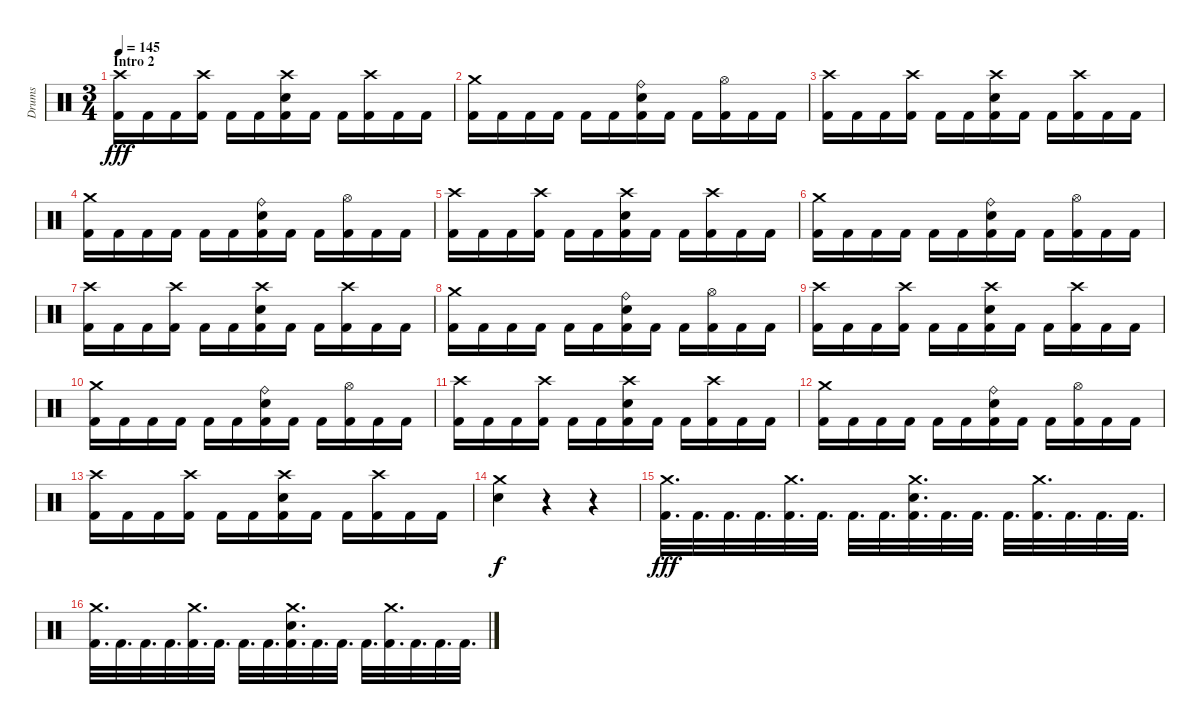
\track ("Drums" "Drums") {instrument percussion}
\staff {score}
\articulation defaults
\ts (3 4)
\section ("" "Intro 2")
\tempo 145
\clef neutral
\ks c
("Crash high (hit)" "Kick (hit) 2").16{dy fff} "Kick (hit) 2".16 "Kick (hit) 2".16 ("Crash high (hit)" "Kick (hit) 2").16 "Kick (hit) 2".16 "Kick (hit) 2".16 ("Crash high (hit)" "Electric Snare (hit)" "Kick (hit) 2").16 "Kick (hit) 2".16 "Kick (hit) 2".16 ("Crash high (hit)" "Kick (hit) 2").16 "Kick (hit) 2".16 "Kick (hit) 2".16 |
("Crash medium (hit)" "Kick (hit) 2").16 "Kick (hit) 2".16 "Kick (hit) 2".16 "Kick (hit) 2".16 "Kick (hit) 2".16 "Kick (hit) 2".16 ("Ride (bell)" "Electric Snare (hit)" "Kick (hit) 2").16 "Kick (hit) 2".16 "Kick (hit) 2".16 ("Hi-Hat (open)" "Kick (hit) 2").16 "Kick (hit) 2".16 "Kick (hit) 2".16 |
("Crash high (hit)" "Kick (hit) 2").16 "Kick (hit) 2".16 "Kick (hit) 2".16 ("Crash high (hit)" "Kick (hit) 2").16 "Kick (hit) 2".16 "Kick (hit) 2".16 ("Crash high (hit)" "Electric Snare (hit)" "Kick (hit) 2").16 "Kick (hit) 2".16 "Kick (hit) 2".16 ("Crash high (hit)" "Kick (hit) 2").16 "Kick (hit) 2".16 "Kick (hit) 2".16 |
("Crash medium (hit)" "Kick (hit) 2").16 "Kick (hit) 2".16 "Kick (hit) 2".16 "Kick (hit) 2".16 "Kick (hit) 2".16 "Kick (hit) 2".16 ("Ride (bell)" "Electric Snare (hit)" "Kick (hit) 2").16 "Kick (hit) 2".16 "Kick (hit) 2".16 ("Hi-Hat (open)" "Kick (hit) 2").16 "Kick (hit) 2".16 "Kick (hit) 2".16 |
("Crash high (hit)" "Kick (hit) 2").16 "Kick (hit) 2".16 "Kick (hit) 2".16 ("Crash high (hit)" "Kick (hit) 2").16 "Kick (hit) 2".16 "Kick (hit) 2".16 ("Crash high (hit)" "Electric Snare (hit)" "Kick (hit) 2").16 "Kick (hit) 2".16 "Kick (hit) 2".16 ("Crash high (hit)" "Kick (hit) 2").16 "Kick (hit) 2".16 "Kick (hit) 2".16 |
("Crash medium (hit)" "Kick (hit) 2").16 "Kick (hit) 2".16 "Kick (hit) 2".16 "Kick (hit) 2".16 "Kick (hit) 2".16 "Kick (hit) 2".16 ("Ride (bell)" "Electric Snare (hit)" "Kick (hit) 2").16 "Kick (hit) 2".16 "Kick (hit) 2".16 ("Hi-Hat (open)" "Kick (hit) 2").16 "Kick (hit) 2".16 "Kick (hit) 2".16 |
("Crash high (hit)" "Kick (hit) 2").16 "Kick (hit) 2".16 "Kick (hit) 2".16 ("Crash high (hit)" "Kick (hit) 2").16 "Kick (hit) 2".16 "Kick (hit) 2".16 ("Crash high (hit)" "Electric Snare (hit)" "Kick (hit) 2").16 "Kick (hit) 2".16 "Kick (hit) 2".16 ("Crash high (hit)" "Kick (hit) 2").16 "Kick (hit) 2".16 "Kick (hit) 2".16 |
("Crash medium (hit)" "Kick (hit) 2").16 "Kick (hit) 2".16 "Kick (hit) 2".16 "Kick (hit) 2".16 "Kick (hit) 2".16 "Kick (hit) 2".16 ("Ride (bell)" "Electric Snare (hit)" "Kick (hit) 2").16 "Kick (hit) 2".16 "Kick (hit) 2".16 ("Hi-Hat (open)" "Kick (hit) 2").16 "Kick (hit) 2".16 "Kick (hit) 2".16 |
("Crash high (hit)" "Kick (hit) 2").16 "Kick (hit) 2".16 "Kick (hit) 2".16 ("Crash high (hit)" "Kick (hit) 2").16 "Kick (hit) 2".16 "Kick (hit) 2".16 ("Crash high (hit)" "Electric Snare (hit)" "Kick (hit) 2").16 "Kick (hit) 2".16 "Kick (hit) 2".16 ("Crash high (hit)" "Kick (hit) 2").16 "Kick (hit) 2".16 "Kick (hit) 2".16 |
("Crash medium (hit)" "Kick (hit) 2").16 "Kick (hit) 2".16 "Kick (hit) 2".16 "Kick (hit) 2".16 "Kick (hit) 2".16 "Kick (hit) 2".16 ("Ride (bell)" "Electric Snare (hit)" "Kick (hit) 2").16 "Kick (hit) 2".16 "Kick (hit) 2".16 ("Hi-Hat (open)" "Kick (hit) 2").16 "Kick (hit) 2".16 "Kick (hit) 2".16 |
("Crash high (hit)" "Kick (hit) 2").16 "Kick (hit) 2".16 "Kick (hit) 2".16 ("Crash high (hit)" "Kick (hit) 2").16 "Kick (hit) 2".16 "Kick (hit) 2".16 ("Crash high (hit)" "Electric Snare (hit)" "Kick (hit) 2").16 "Kick (hit) 2".16 "Kick (hit) 2".16 ("Crash high (hit)" "Kick (hit) 2").16 "Kick (hit) 2".16 "Kick (hit) 2".16 |
("Crash medium (hit)" "Kick (hit) 2").16 "Kick (hit) 2".16 "Kick (hit) 2".16 "Kick (hit) 2".16 "Kick (hit) 2".16 "Kick (hit) 2".16 ("Ride (bell)" "Electric Snare (hit)" "Kick (hit) 2").16 "Kick (hit) 2".16 "Kick (hit) 2".16 ("Hi-Hat (open)" "Kick (hit) 2").16 "Kick (hit) 2".16 "Kick (hit) 2".16 |
("Crash high (hit)" "Kick (hit) 2").16 "Kick (hit) 2".16 "Kick (hit) 2".16 ("Crash high (hit)" "Kick (hit) 2").16 "Kick (hit) 2".16 "Kick (hit) 2".16 ("Crash high (hit)" "Electric Snare (hit)" "Kick (hit) 2").16 "Kick (hit) 2".16 "Kick (hit) 2".16 ("Crash high (hit)" "Kick (hit) 2").16 "Kick (hit) 2".16 "Kick (hit) 2".16 |
("Crash medium (hit)" "Electric Snare (hit)").4{dy f} r.4 r.4 |
("Crash medium (hit)" "Kick (hit) 2").32{d dy fff} "Kick (hit) 2".32{d} "Kick (hit) 2".32{d} "Kick (hit) 2".32{d} ("Crash medium (hit)" "Kick (hit) 2").32{d} "Kick (hit) 2".32{d} "Kick (hit) 2".32{d} "Kick (hit) 2".32{d} ("Crash medium (hit)" "Electric Snare (hit)" "Kick (hit) 2").32{d} "Kick (hit) 2".32{d} "Kick (hit) 2".32{d} "Kick (hit) 2".32{d} ("Crash medium (hit)" "Kick (hit) 2").32{d} "Kick (hit) 2".32{d} "Kick (hit) 2".32{d} "Kick (hit) 2".32{d} |
("Crash medium (hit)" "Kick (hit) 2").32{d} "Kick (hit) 2".32{d} "Kick (hit) 2".32{d} "Kick (hit) 2".32{d} ("Crash medium (hit)" "Kick (hit) 2").32{d} "Kick (hit) 2".32{d} "Kick (hit) 2".32{d} "Kick (hit) 2".32{d} ("Crash medium (hit)" "Electric Snare (hit)" "Kick (hit) 2").32{d} "Kick (hit) 2".32{d} "Kick (hit) 2".32{d} "Kick (hit) 2".32{d} ("Crash medium (hit)" "Kick (hit) 2").32{d} "Kick (hit) 2".32{d} "Kick (hit) 2".32{d} "Kick (hit) 2".32{d}
